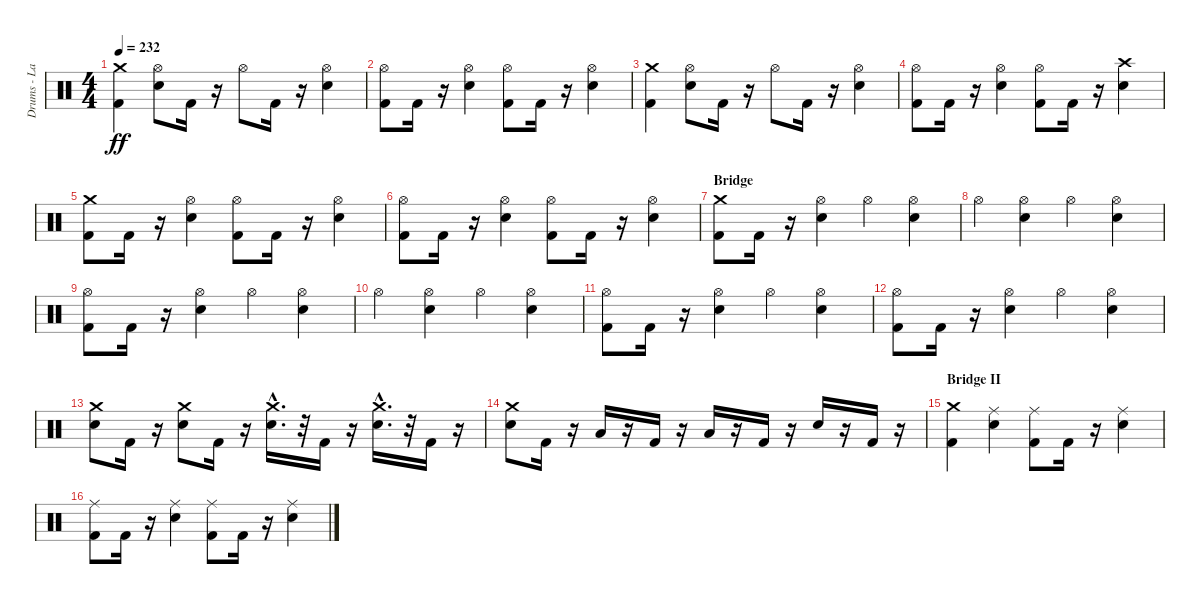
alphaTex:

\track ("Drums - Larzon" "Drums - La") {instrument percussion}
\staff {score}
\articulation defaults
\ts (4 4)
\tempo 232
\clef neutral
\ks c
("Kick (hit) 2" "Crash medium (hit)").4{dy ff} ("Electric Snare (hit)" "Hi-Hat (open)").8 "Kick (hit) 2".16 r.16 "Hi-Hat (open)".8 "Kick (hit) 2".16 r.16 ("Electric Snare (hit)" "Hi-Hat (open)").4 |
("Kick (hit) 2" "Hi-Hat (open)").8 "Kick (hit) 2".16 r.16 ("Electric Snare (hit)" "Hi-Hat (open)").4 ("Kick (hit) 2" "Hi-Hat (open)").8 "Kick (hit) 2".16 r.16 ("Electric Snare (hit)" "Hi-Hat (open)").4 |
("Kick (hit) 2" "Crash medium (hit)").4 ("Electric Snare (hit)" "Hi-Hat (open)").8 "Kick (hit) 2".16 r.16 "Hi-Hat (open)".8 "Kick (hit) 2".16 r.16 ("Electric Snare (hit)" "Hi-Hat (open)").4 |
("Kick (hit) 2" "Hi-Hat (open)").8 "Kick (hit) 2".16 r.16 ("Electric Snare (hit)" "Hi-Hat (open)").4 ("Kick (hit) 2" "Hi-Hat (open)").8 "Kick (hit) 2".16 r.16 ("Electric Snare (hit)" "Crash high (hit)").4 |
("Kick (hit) 2" "Crash medium (hit)").8 "Kick (hit) 2".16 r.16 ("Electric Snare (hit)" "Hi-Hat (open)").4 ("Kick (hit) 2" "Hi-Hat (open)").8 "Kick (hit) 2".16 r.16 ("Electric Snare (hit)" "Hi-Hat (open)").4 |
("Hi-Hat (open)" "Kick (hit) 2").8 "Kick (hit) 2".16 r.16 ("Electric Snare (hit)" "Hi-Hat (open)").4 ("Kick (hit) 2" "Hi-Hat (open)").8 "Kick (hit) 2".16 r.16 ("Electric Snare (hit)" "Hi-Hat (open)").4 |
\section ("" "Bridge")
("Kick (hit) 2" "Crash medium (hit)").8 "Kick (hit) 2".16 r.16 ("Electric Snare (hit)" "Hi-Hat (open)").4 "Hi-Hat (open)".4 ("Electric Snare (hit)" "Hi-Hat (open)").4 |
"Hi-Hat (open)".4 ("Electric Snare (hit)" "Hi-Hat (open)").4 "Hi-Hat (open)".4 ("Electric Snare (hit)" "Hi-Hat (open)").4 |
("Kick (hit) 2" "Hi-Hat (open)").8 "Kick (hit) 2".16 r.16 ("Electric Snare (hit)" "Hi-Hat (open)").4 "Hi-Hat (open)".4 ("Electric Snare (hit)" "Hi-Hat (open)").4 |
"Hi-Hat (open)".4 ("Electric Snare (hit)" "Hi-Hat (open)").4 "Hi-Hat (open)".4 ("Electric Snare (hit)" "Hi-Hat (open)").4 |
("Kick (hit) 2" "Hi-Hat (open)").8 "Kick (hit) 2".16 r.16 ("Electric Snare (hit)" "Hi-Hat (open)").4 "Hi-Hat (open)".4 ("Electric Snare (hit)" "Hi-Hat (open)").4 |
("Kick (hit) 2" "Hi-Hat (open)").8 "Kick (hit) 2".16 r.16 ("Electric Snare (hit)" "Hi-Hat (open)").4 "Hi-Hat (open)".4 ("Electric Snare (hit)" "Hi-Hat (open)").4 |
("Electric Snare (hit)" "Crash medium (hit)").8 "Kick (hit) 2".16 r.16 ("Electric Snare (hit)" "Crash medium (hit)").8 "Kick (hit) 2".16 r.16 ("Electric Snare (hit)" "Crash medium (hit)"{hac}).16{d} r.32 "Kick (hit) 2".16 r.16 ("Electric Snare (hit)" "Crash medium (hit)"{hac}).16{d} r.32 "Kick (hit) 2".16 r.16 |
("Electric Snare (hit)" "Crash medium (hit)").8 "Kick (hit) 2".16 r.16 "Low Tom (hit)".16 r.16 "Kick (hit) 2".16 r.16 "Low Tom (hit)".16 r.16 "Kick (hit) 2".16 r.16 "Electric Snare (hit)".16 r.16 "Kick (hit) 2".16 r.16 |
\section ("" "Bridge II")
("Kick (hit) 2" "Crash medium (hit)").4 ("Electric Snare (hit)" "Ride (middle)").4 ("Kick (hit) 2" "Ride (middle)").8 "Kick (hit) 2".16 r.16 ("Electric Snare (hit)" "Ride (middle)").4 |
("Kick (hit) 2" "Ride (middle)").8 "Kick (hit) 2".16 r.16 ("Electric Snare (hit)" "Ride (middle)").4 ("Kick (hit) 2" "Ride (middle)").8 "Kick (hit) 2".16 r.16 ("Electric Snare (hit)" "Ride (middle)").4
